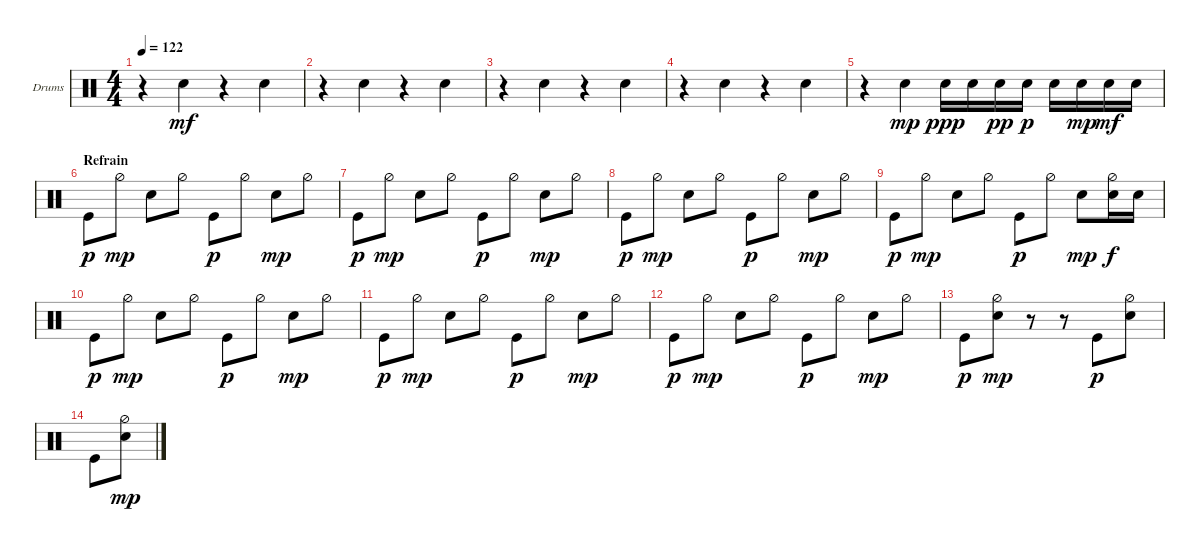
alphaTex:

\defaultSystemsLayout 4
\bracketExtendMode groupsimilarinstruments
\firstSystemTrackNameOrientation horizontal
\otherSystemsTrackNameOrientation horizontal
\track ("Drumkit" "Drums") {instrument percussion}
\staff {score}
\articulation defaults
\ts (4 4)
\tempo 122
\clef neutral
\ks c
r.4{dy mf} "Snare (hit) 2".4 r.4 "Snare (hit) 2".4 |
r.4 "Snare (hit) 2".4 r.4 "Snare (hit) 2".4 |
r.4 "Snare (hit) 2".4 r.4 "Snare (hit) 2".4 |
r.4 "Snare (hit) 2".4 r.4 "Snare (hit) 2".4 |
r.4 "Snare (hit) 2".4{dy mp} "Snare (hit) 2".16{dy ppp} "Snare (hit) 2".16 "Snare (hit) 2".16{dy pp} "Snare (hit) 2".16{dy p} "Snare (hit) 2".16 "Snare (hit) 2".16{dy mp} "Snare (hit) 2".16{dy mf} "Snare (hit) 2".16 |
\section ("" "Refrain")
\scale
0.237113 "Kick (hit)".8{dy p} "Hi-Hat (half)".8{dy mp} "Snare (hit) 2".8 "Hi-Hat (half)".8 "Kick (hit)".8{dy p} "Hi-Hat (half)".8 "Snare (hit) 2".8{dy mp} "Hi-Hat (half)".8 |
"Kick (hit)".8{dy p} "Hi-Hat (half)".8{dy mp} "Snare (hit) 2".8 "Hi-Hat (half)".8 "Kick (hit)".8{dy p} "Hi-Hat (half)".8 "Snare (hit) 2".8{dy mp} "Hi-Hat (half)".8 |
"Kick (hit)".8{dy p} "Hi-Hat (half)".8{dy mp} "Snare (hit) 2".8 "Hi-Hat (half)".8 "Kick (hit)".8{dy p} "Hi-Hat (half)".8 "Snare (hit) 2".8{dy mp} "Hi-Hat (half)".8 |
"Kick (hit)".8{dy p} "Hi-Hat (half)".8{dy mp} "Snare (hit) 2".8 "Hi-Hat (half)".8 "Kick (hit)".8{dy p} "Hi-Hat (half)".8 "Snare (hit) 2".8{dy mp} ("Hi-Hat (half)" "Snare (hit) 2").16{dy f} "Snare (hit) 2".16 |
"Kick (hit)".8{dy p} "Hi-Hat (half)".8{dy mp} "Snare (hit) 2".8 "Hi-Hat (half)".8 "Kick (hit)".8{dy p} "Hi-Hat (half)".8 "Snare (hit) 2".8{dy mp} "Hi-Hat (half)".8 |
"Kick (hit)".8{dy p} "Hi-Hat (half)".8{dy mp} "Snare (hit) 2".8 "Hi-Hat (half)".8 "Kick (hit)".8{dy p} "Hi-Hat (half)".8 "Snare (hit) 2".8{dy mp} "Hi-Hat (half)".8 |
"Kick (hit)".8{dy p} "Hi-Hat (half)".8{dy mp} "Snare (hit) 2".8 "Hi-Hat (half)".8 "Kick (hit)".8{dy p} "Hi-Hat (half)".8 "Snare (hit) 2".8{dy mp} "Hi-Hat (half)".8 |
"Kick (hit)".8{dy p} ("Hi-Hat (half)" "Snare (hit) 2").8{dy mp} r.8 r.8 "Kick (hit)".8{dy p} ("Hi-Hat (half)" "Snare (hit) 2").8 |
"Kick (hit)".8 ("Hi-Hat (half)" "Snare (hit) 2").8{dy mp}
